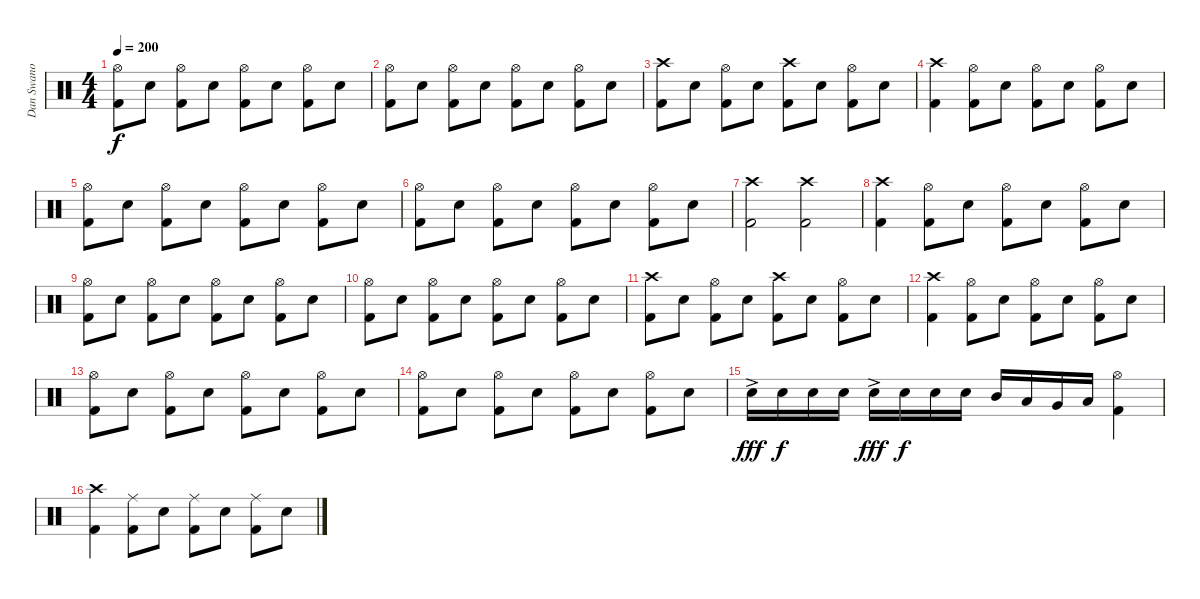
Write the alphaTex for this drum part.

\track ("Dan Swano" "Dan Swano") {instrument percussion}
\staff {score}
\articulation defaults
\ts (4 4)
\tempo 200
\clef neutral
\ks c
("Hi-Hat (open)" "Kick (hit) 2").8{dy f} "Electric Snare (hit)".8 ("Hi-Hat (open)" "Kick (hit) 2").8 "Electric Snare (hit)".8 ("Hi-Hat (open)" "Kick (hit) 2").8 "Electric Snare (hit)".8 ("Hi-Hat (open)" "Kick (hit) 2").8 "Electric Snare (hit)".8 |
("Hi-Hat (open)" "Kick (hit) 2").8 "Electric Snare (hit)".8 ("Hi-Hat (open)" "Kick (hit) 2").8 "Electric Snare (hit)".8 ("Hi-Hat (open)" "Kick (hit) 2").8 "Electric Snare (hit)".8 ("Hi-Hat (open)" "Kick (hit) 2").8 "Electric Snare (hit)".8 |
("Crash high (hit)" "Kick (hit) 2").8 "Electric Snare (hit)".8 ("Hi-Hat (open)" "Kick (hit) 2").8 "Electric Snare (hit)".8 ("Crash high (hit)" "Kick (hit) 2").8 "Electric Snare (hit)".8 ("Hi-Hat (open)" "Kick (hit) 2").8 "Electric Snare (hit)".8 |
("Crash high (hit)" "Kick (hit) 2").4 ("Hi-Hat (open)" "Kick (hit) 2").8 "Electric Snare (hit)".8 ("Hi-Hat (open)" "Kick (hit) 2").8 "Electric Snare (hit)".8 ("Hi-Hat (open)" "Kick (hit) 2").8 "Electric Snare (hit)".8 |
("Hi-Hat (open)" "Kick (hit) 2").8 "Electric Snare (hit)".8 ("Hi-Hat (open)" "Kick (hit) 2").8 "Electric Snare (hit)".8 ("Hi-Hat (open)" "Kick (hit) 2").8 "Electric Snare (hit)".8 ("Hi-Hat (open)" "Kick (hit) 2").8 "Electric Snare (hit)".8 |
("Hi-Hat (open)" "Kick (hit) 2").8 "Electric Snare (hit)".8 ("Hi-Hat (open)" "Kick (hit) 2").8 "Electric Snare (hit)".8 ("Hi-Hat (open)" "Kick (hit) 2").8 "Electric Snare (hit)".8 ("Hi-Hat (open)" "Kick (hit) 2").8 "Electric Snare (hit)".8 |
("Crash high (hit)" "Kick (hit) 2").2 ("Crash high (hit)" "Kick (hit) 2").2 |
("Crash high (hit)" "Kick (hit) 2").4 ("Hi-Hat (open)" "Kick (hit) 2").8 "Electric Snare (hit)".8 ("Hi-Hat (open)" "Kick (hit) 2").8 "Electric Snare (hit)".8 ("Hi-Hat (open)" "Kick (hit) 2").8 "Electric Snare (hit)".8 |
("Hi-Hat (open)" "Kick (hit) 2").8 "Electric Snare (hit)".8 ("Hi-Hat (open)" "Kick (hit) 2").8 "Electric Snare (hit)".8 ("Hi-Hat (open)" "Kick (hit) 2").8 "Electric Snare (hit)".8 ("Hi-Hat (open)" "Kick (hit) 2").8 "Electric Snare (hit)".8 |
("Hi-Hat (open)" "Kick (hit) 2").8 "Electric Snare (hit)".8 ("Hi-Hat (open)" "Kick (hit) 2").8 "Electric Snare (hit)".8 ("Hi-Hat (open)" "Kick (hit) 2").8 "Electric Snare (hit)".8 ("Hi-Hat (open)" "Kick (hit) 2").8 "Electric Snare (hit)".8 |
("Crash high (hit)" "Kick (hit) 2").8 "Electric Snare (hit)".8 ("Hi-Hat (open)" "Kick (hit) 2").8 "Electric Snare (hit)".8 ("Crash high (hit)" "Kick (hit) 2").8 "Electric Snare (hit)".8 ("Hi-Hat (open)" "Kick (hit) 2").8 "Electric Snare (hit)".8 |
("Crash high (hit)" "Kick (hit) 2").4 ("Hi-Hat (open)" "Kick (hit) 2").8 "Electric Snare (hit)".8 ("Hi-Hat (open)" "Kick (hit) 2").8 "Electric Snare (hit)".8 ("Hi-Hat (open)" "Kick (hit) 2").8 "Electric Snare (hit)".8 |
("Hi-Hat (open)" "Kick (hit) 2").8 "Electric Snare (hit)".8 ("Hi-Hat (open)" "Kick (hit) 2").8 "Electric Snare (hit)".8 ("Hi-Hat (open)" "Kick (hit) 2").8 "Electric Snare (hit)".8 ("Hi-Hat (open)" "Kick (hit) 2").8 "Electric Snare (hit)".8 |
("Hi-Hat (open)" "Kick (hit) 2").8 "Electric Snare (hit)".8 ("Hi-Hat (open)" "Kick (hit) 2").8 "Electric Snare (hit)".8 ("Hi-Hat (open)" "Kick (hit) 2").8 "Electric Snare (hit)".8 ("Hi-Hat (open)" "Kick (hit) 2").8 "Electric Snare (hit)".8 |
"Electric Snare (hit)"{ac}.16{dy fff} "Electric Snare (hit)".16{dy f} "Electric Snare (hit)".16 "Electric Snare (hit)".16 "Electric Snare (hit)"{ac}.16{dy fff} "Electric Snare (hit)".16{dy f} "Electric Snare (hit)".16 "Electric Snare (hit)".16 "Mid Tom (hit)".16 "Low Tom (hit)".16 "Very Low Tom (hit)".16 "Low Floor Tom (hit)".16 ("Hi-Hat (open)" "Kick (hit) 2").4 |
("Crash high (hit)" "Kick (hit) 2").4 ("Ride (middle)" "Kick (hit) 2").8 "Electric Snare (hit)".8 ("Ride (middle)" "Kick (hit) 2").8 "Electric Snare (hit)".8 ("Ride (middle)" "Kick (hit) 2").8 "Electric Snare (hit)".8
